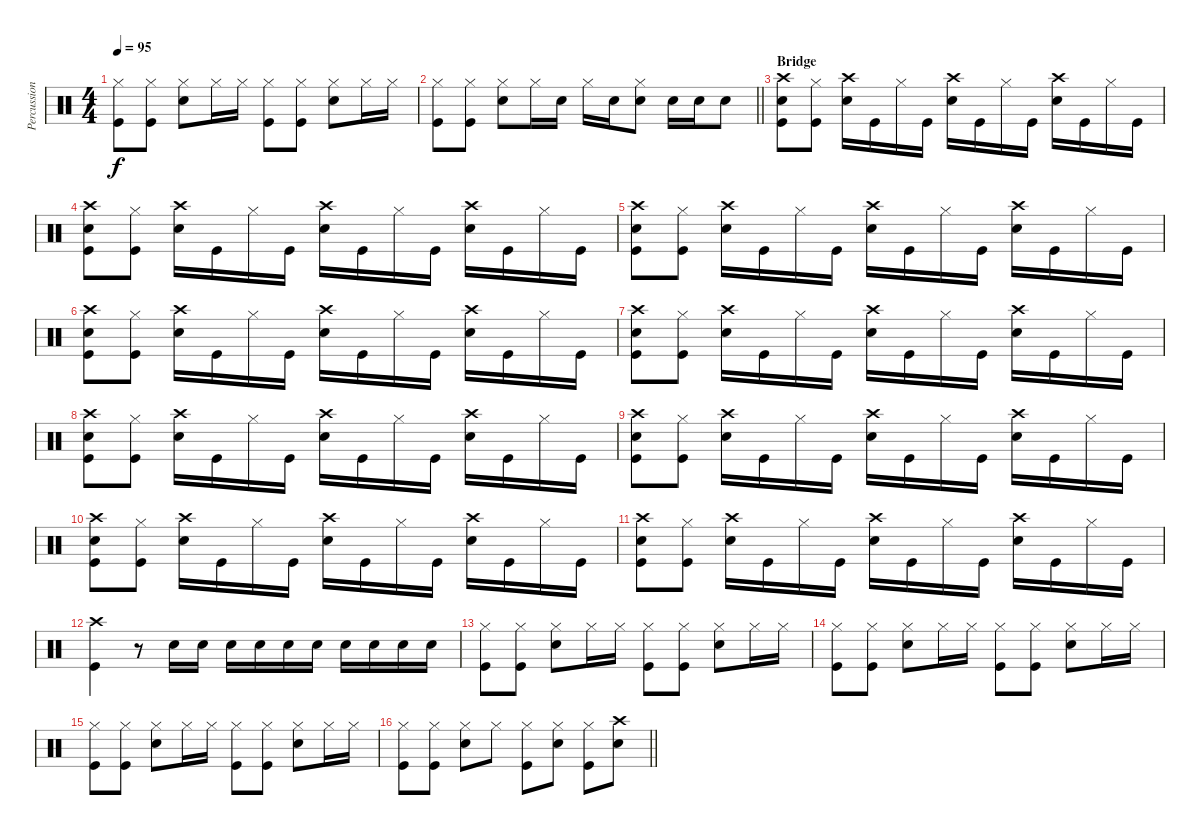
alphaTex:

\track ("Percussion" "Percussion") {instrument percussion}
\staff {score}
\articulation defaults
\ts (4 4)
\tempo 95
\clef neutral
\ks c
("Hi-Hat (closed)" "Kick (hit)").8{dy f} ("Hi-Hat (closed)" "Kick (hit)").8 ("Hi-Hat (closed)" "Snare (hit) 2").8 "Hi-Hat (closed)".16 "Hi-Hat (closed)".16 ("Hi-Hat (closed)" "Kick (hit)").8 ("Hi-Hat (closed)" "Kick (hit)").8 ("Hi-Hat (closed)" "Snare (hit) 2").8 "Hi-Hat (closed)".16 "Hi-Hat (closed)".16 |
\barLineRight lightlight
("Hi-Hat (closed)" "Kick (hit)").8 ("Hi-Hat (closed)" "Kick (hit)").8 ("Hi-Hat (closed)" "Snare (hit) 2").8 "Hi-Hat (closed)".16 "Snare (hit) 2".16 "Hi-Hat (closed)".16 "Snare (hit) 2".16 ("Hi-Hat (closed)" "Snare (hit) 2").8 "Snare (hit) 2".16 "Snare (hit) 2".16 "Snare (hit) 2".8 |
\section ("" "Bridge")
("Crash high (hit)" "Snare (hit) 2" "Kick (hit)").8 ("Hi-Hat (closed)" "Kick (hit)").8 ("Crash high (hit)" "Snare (hit) 2").16 "Kick (hit)".16 "Hi-Hat (closed)".16 "Kick (hit)".16 ("Crash high (hit)" "Snare (hit) 2").16 "Kick (hit)".16 "Hi-Hat (closed)".16 "Kick (hit)".16 ("Crash high (hit)" "Snare (hit) 2").16 "Kick (hit)".16 "Hi-Hat (closed)".16 "Kick (hit)".16 |
("Crash high (hit)" "Snare (hit) 2" "Kick (hit)").8 ("Hi-Hat (closed)" "Kick (hit)").8 ("Crash high (hit)" "Snare (hit) 2").16 "Kick (hit)".16 "Hi-Hat (closed)".16 "Kick (hit)".16 ("Crash high (hit)" "Snare (hit) 2").16 "Kick (hit)".16 "Hi-Hat (closed)".16 "Kick (hit)".16 ("Crash high (hit)" "Snare (hit) 2").16 "Kick (hit)".16 "Hi-Hat (closed)".16 "Kick (hit)".16 |
("Crash high (hit)" "Snare (hit) 2" "Kick (hit)").8 ("Hi-Hat (closed)" "Kick (hit)").8 ("Crash high (hit)" "Snare (hit) 2").16 "Kick (hit)".16 "Hi-Hat (closed)".16 "Kick (hit)".16 ("Crash high (hit)" "Snare (hit) 2").16 "Kick (hit)".16 "Hi-Hat (closed)".16 "Kick (hit)".16 ("Crash high (hit)" "Snare (hit) 2").16 "Kick (hit)".16 "Hi-Hat (closed)".16 "Kick (hit)".16 |
("Crash high (hit)" "Snare (hit) 2" "Kick (hit)").8 ("Hi-Hat (closed)" "Kick (hit)").8 ("Crash high (hit)" "Snare (hit) 2").16 "Kick (hit)".16 "Hi-Hat (closed)".16 "Kick (hit)".16 ("Crash high (hit)" "Snare (hit) 2").16 "Kick (hit)".16 "Hi-Hat (closed)".16 "Kick (hit)".16 ("Crash high (hit)" "Snare (hit) 2").16 "Kick (hit)".16 "Hi-Hat (closed)".16 "Kick (hit)".16 |
("Crash high (hit)" "Snare (hit) 2" "Kick (hit)").8 ("Hi-Hat (closed)" "Kick (hit)").8 ("Crash high (hit)" "Snare (hit) 2").16 "Kick (hit)".16 "Hi-Hat (closed)".16 "Kick (hit)".16 ("Crash high (hit)" "Snare (hit) 2").16 "Kick (hit)".16 "Hi-Hat (closed)".16 "Kick (hit)".16 ("Crash high (hit)" "Snare (hit) 2").16 "Kick (hit)".16 "Hi-Hat (closed)".16 "Kick (hit)".16 |
("Crash high (hit)" "Snare (hit) 2" "Kick (hit)").8 ("Hi-Hat (closed)" "Kick (hit)").8 ("Crash high (hit)" "Snare (hit) 2").16 "Kick (hit)".16 "Hi-Hat (closed)".16 "Kick (hit)".16 ("Crash high (hit)" "Snare (hit) 2").16 "Kick (hit)".16 "Hi-Hat (closed)".16 "Kick (hit)".16 ("Crash high (hit)" "Snare (hit) 2").16 "Kick (hit)".16 "Hi-Hat (closed)".16 "Kick (hit)".16 |
("Crash high (hit)" "Snare (hit) 2" "Kick (hit)").8 ("Hi-Hat (closed)" "Kick (hit)").8 ("Crash high (hit)" "Snare (hit) 2").16 "Kick (hit)".16 "Hi-Hat (closed)".16 "Kick (hit)".16 ("Crash high (hit)" "Snare (hit) 2").16 "Kick (hit)".16 "Hi-Hat (closed)".16 "Kick (hit)".16 ("Crash high (hit)" "Snare (hit) 2").16 "Kick (hit)".16 "Hi-Hat (closed)".16 "Kick (hit)".16 |
("Crash high (hit)" "Snare (hit) 2" "Kick (hit)").8 ("Hi-Hat (closed)" "Kick (hit)").8 ("Crash high (hit)" "Snare (hit) 2").16 "Kick (hit)".16 "Hi-Hat (closed)".16 "Kick (hit)".16 ("Crash high (hit)" "Snare (hit) 2").16 "Kick (hit)".16 "Hi-Hat (closed)".16 "Kick (hit)".16 ("Crash high (hit)" "Snare (hit) 2").16 "Kick (hit)".16 "Hi-Hat (closed)".16 "Kick (hit)".16 |
("Crash high (hit)" "Snare (hit) 2" "Kick (hit)").8 ("Hi-Hat (closed)" "Kick (hit)").8 ("Crash high (hit)" "Snare (hit) 2").16 "Kick (hit)".16 "Hi-Hat (closed)".16 "Kick (hit)".16 ("Crash high (hit)" "Snare (hit) 2").16 "Kick (hit)".16 "Hi-Hat (closed)".16 "Kick (hit)".16 ("Crash high (hit)" "Snare (hit) 2").16 "Kick (hit)".16 "Hi-Hat (closed)".16 "Kick (hit)".16 |
("Crash high (hit)" "Kick (hit)").4 r.8 "Snare (hit) 2".16 "Snare (hit) 2".16 "Snare (hit) 2".16 "Snare (hit) 2".16 "Snare (hit) 2".16 "Snare (hit) 2".16 "Snare (hit) 2".16 "Snare (hit) 2".16 "Snare (hit) 2".16 "Snare (hit) 2".16 |
("Hi-Hat (closed)" "Kick (hit)").8 ("Hi-Hat (closed)" "Kick (hit)").8 ("Hi-Hat (closed)" "Snare (hit) 2").8 "Hi-Hat (closed)".16 "Hi-Hat (closed)".16 ("Hi-Hat (closed)" "Kick (hit)").8 ("Hi-Hat (closed)" "Kick (hit)").8 ("Hi-Hat (closed)" "Snare (hit) 2").8 "Hi-Hat (closed)".16 "Hi-Hat (closed)".16 |
("Hi-Hat (closed)" "Kick (hit)").8 ("Hi-Hat (closed)" "Kick (hit)").8 ("Hi-Hat (closed)" "Snare (hit) 2").8 "Hi-Hat (closed)".16 "Hi-Hat (closed)".16 ("Hi-Hat (closed)" "Kick (hit)").8 ("Hi-Hat (closed)" "Kick (hit)").8 ("Hi-Hat (closed)" "Snare (hit) 2").8 "Hi-Hat (closed)".16 "Hi-Hat (closed)".16 |
("Hi-Hat (closed)" "Kick (hit)").8 ("Hi-Hat (closed)" "Kick (hit)").8 ("Hi-Hat (closed)" "Snare (hit) 2").8 "Hi-Hat (closed)".16 "Hi-Hat (closed)".16 ("Hi-Hat (closed)" "Kick (hit)").8 ("Hi-Hat (closed)" "Kick (hit)").8 ("Hi-Hat (closed)" "Snare (hit) 2").8 "Hi-Hat (closed)".16 "Hi-Hat (closed)".16 |
\barLineRight lightlight
("Hi-Hat (closed)" "Kick (hit)").8 ("Hi-Hat (closed)" "Kick (hit)").8 ("Hi-Hat (closed)" "Snare (hit) 2").8 "Hi-Hat (closed)".8 ("Hi-Hat (closed)" "Kick (hit)").8 ("Hi-Hat (closed)" "Snare (hit) 2").8 ("Hi-Hat (closed)" "Kick (hit)").8 ("Crash high (hit)" "Snare (hit) 2").8
